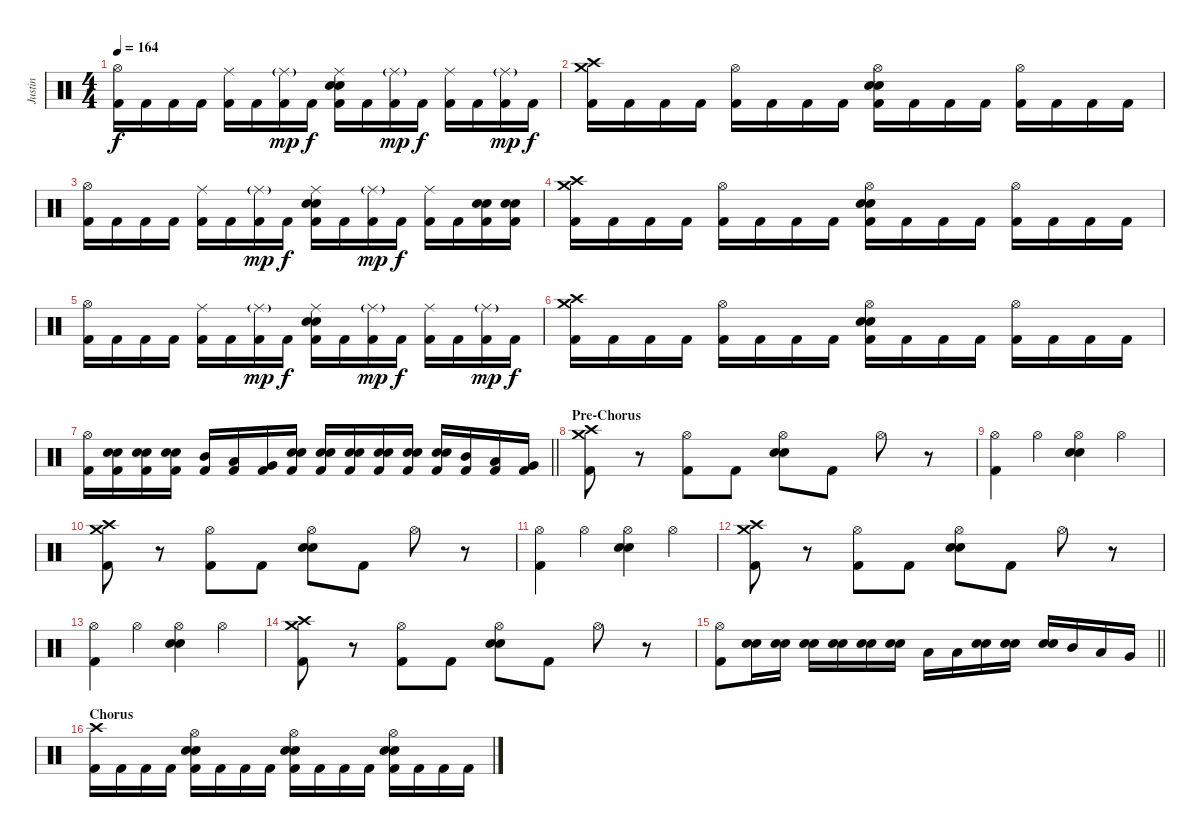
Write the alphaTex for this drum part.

\track ("Justin" "Justin") {instrument percussion}
\staff {score}
\articulation defaults
\ts (4 4)
\tempo 164
\clef neutral
\ks c
("Hi-Hat (open)" "Kick (hit) 2").16{dy f} "Kick (hit) 2".16 "Kick (hit) 2".16 "Kick (hit) 2".16 ("Ride (middle)" "Kick (hit) 2").16 "Kick (hit) 2".16 ("Ride (middle)"{g} "Kick (hit) 2").16{dy mp} "Kick (hit) 2".16{dy f} ("Ride (middle)" "Electric Snare (hit)" "Snare (hit) 2" "Kick (hit) 2").16 "Kick (hit) 2".16 ("Ride (middle)"{g} "Kick (hit) 2").16{dy mp} "Kick (hit) 2".16{dy f} ("Ride (middle)" "Kick (hit) 2").16 "Kick (hit) 2".16 ("Ride (middle)"{g} "Kick (hit) 2").16{dy mp} "Kick (hit) 2".16{dy f} |
("Crash medium (hit)" "Crash high (hit)" "Kick (hit) 2").16 "Kick (hit) 2".16 "Kick (hit) 2".16 "Kick (hit) 2".16 ("Hi-Hat (open)" "Kick (hit) 2").16 "Kick (hit) 2".16 "Kick (hit) 2".16 "Kick (hit) 2".16 ("Hi-Hat (open)" "Electric Snare (hit)" "Snare (hit) 2" "Kick (hit) 2").16 "Kick (hit) 2".16 "Kick (hit) 2".16 "Kick (hit) 2".16 ("Hi-Hat (open)" "Kick (hit) 2").16 "Kick (hit) 2".16 "Kick (hit) 2".16 "Kick (hit) 2".16 |
("Hi-Hat (open)" "Kick (hit) 2").16 "Kick (hit) 2".16 "Kick (hit) 2".16 "Kick (hit) 2".16 ("Ride (middle)" "Kick (hit) 2").16 "Kick (hit) 2".16 ("Ride (middle)"{g} "Kick (hit) 2").16{dy mp} "Kick (hit) 2".16{dy f} ("Ride (middle)" "Electric Snare (hit)" "Snare (hit) 2" "Kick (hit) 2").16 "Kick (hit) 2".16 ("Ride (middle)"{g} "Kick (hit) 2").16{dy mp} "Kick (hit) 2".16{dy f} ("Ride (middle)" "Kick (hit) 2").16 "Kick (hit) 2".16 ("Electric Snare (hit)" "Snare (hit) 2" "Kick (hit) 2").16 ("Electric Snare (hit)" "Snare (hit) 2" "Kick (hit) 2").16 |
("Crash medium (hit)" "Crash high (hit)" "Kick (hit) 2").16 "Kick (hit) 2".16 "Kick (hit) 2".16 "Kick (hit) 2".16 ("Hi-Hat (open)" "Kick (hit) 2").16 "Kick (hit) 2".16 "Kick (hit) 2".16 "Kick (hit) 2".16 ("Hi-Hat (open)" "Electric Snare (hit)" "Snare (hit) 2" "Kick (hit) 2").16 "Kick (hit) 2".16 "Kick (hit) 2".16 "Kick (hit) 2".16 ("Hi-Hat (open)" "Kick (hit) 2").16 "Kick (hit) 2".16 "Kick (hit) 2".16 "Kick (hit) 2".16 |
("Hi-Hat (open)" "Kick (hit) 2").16 "Kick (hit) 2".16 "Kick (hit) 2".16 "Kick (hit) 2".16 ("Ride (middle)" "Kick (hit) 2").16 "Kick (hit) 2".16 ("Ride (middle)"{g} "Kick (hit) 2").16{dy mp} "Kick (hit) 2".16{dy f} ("Ride (middle)" "Electric Snare (hit)" "Snare (hit) 2" "Kick (hit) 2").16 "Kick (hit) 2".16 ("Ride (middle)"{g} "Kick (hit) 2").16{dy mp} "Kick (hit) 2".16{dy f} ("Ride (middle)" "Kick (hit) 2").16 "Kick (hit) 2".16 ("Ride (middle)"{g} "Kick (hit) 2").16{dy mp} "Kick (hit) 2".16{dy f} |
("Crash medium (hit)" "Crash high (hit)" "Kick (hit) 2").16 "Kick (hit) 2".16 "Kick (hit) 2".16 "Kick (hit) 2".16 ("Hi-Hat (open)" "Kick (hit) 2").16 "Kick (hit) 2".16 "Kick (hit) 2".16 "Kick (hit) 2".16 ("Hi-Hat (open)" "Electric Snare (hit)" "Snare (hit) 2" "Kick (hit) 2").16 "Kick (hit) 2".16 "Kick (hit) 2".16 "Kick (hit) 2".16 ("Hi-Hat (open)" "Kick (hit) 2").16 "Kick (hit) 2".16 "Kick (hit) 2".16 "Kick (hit) 2".16 |
\barLineRight lightlight
("Hi-Hat (open)" "Kick (hit) 2").16 ("Electric Snare (hit)" "Snare (hit) 2" "Kick (hit) 2").16 ("Electric Snare (hit)" "Snare (hit) 2" "Kick (hit) 2").16 ("Electric Snare (hit)" "Snare (hit) 2" "Kick (hit) 2").16 ("Mid Tom (hit)" "Kick (hit) 2").16 ("Low Tom (hit)" "Kick (hit) 2").16 ("Very Low Tom (hit)" "Kick (hit) 2").16 ("Electric Snare (hit)" "Snare (hit) 2" "Kick (hit) 2").16 ("Electric Snare (hit)" "Snare (hit) 2" "Kick (hit) 2").16 ("Electric Snare (hit)" "Snare (hit) 2" "Kick (hit) 2").16 ("Electric Snare (hit)" "Snare (hit) 2" "Kick (hit) 2").16 ("Electric Snare (hit)" "Snare (hit) 2" "Kick (hit) 2").16 ("Electric Snare (hit)" "Snare (hit) 2" "Kick (hit) 2").16 ("Mid Tom (hit)" "Kick (hit) 2").16 ("Low Tom (hit)" "Kick (hit) 2").16 ("Very Low Tom (hit)" "Kick (hit) 2").16 |
\section ("" "Pre-Chorus")
("Crash medium (hit)" "Crash high (hit)" "Kick (hit) 2").8 r.8 ("Hi-Hat (open)" "Kick (hit) 2").8 "Kick (hit) 2".8 ("Hi-Hat (open)" "Electric Snare (hit)" "Snare (hit) 2").8 "Kick (hit) 2".8 "Hi-Hat (open)".8 r.8 |
("Hi-Hat (open)" "Kick (hit) 2").4 "Hi-Hat (open)".4 ("Hi-Hat (open)" "Electric Snare (hit)" "Snare (hit) 2").4 "Hi-Hat (open)".4 |
("Crash medium (hit)" "Crash high (hit)" "Kick (hit) 2").8 r.8 ("Hi-Hat (open)" "Kick (hit) 2").8 "Kick (hit) 2".8 ("Hi-Hat (open)" "Electric Snare (hit)" "Snare (hit) 2").8 "Kick (hit) 2".8 "Hi-Hat (open)".8 r.8 |
("Hi-Hat (open)" "Kick (hit) 2").4 "Hi-Hat (open)".4 ("Hi-Hat (open)" "Electric Snare (hit)" "Snare (hit) 2").4 "Hi-Hat (open)".4 |
("Crash medium (hit)" "Crash high (hit)" "Kick (hit) 2").8 r.8 ("Hi-Hat (open)" "Kick (hit) 2").8 "Kick (hit) 2".8 ("Hi-Hat (open)" "Electric Snare (hit)" "Snare (hit) 2").8 "Kick (hit) 2".8 "Hi-Hat (open)".8 r.8 |
("Hi-Hat (open)" "Kick (hit) 2").4 "Hi-Hat (open)".4 ("Hi-Hat (open)" "Electric Snare (hit)" "Snare (hit) 2").4 "Hi-Hat (open)".4 |
("Crash medium (hit)" "Crash high (hit)" "Kick (hit) 2").8 r.8 ("Hi-Hat (open)" "Kick (hit) 2").8 "Kick (hit) 2".8 ("Hi-Hat (open)" "Electric Snare (hit)" "Snare (hit) 2").8 "Kick (hit) 2".8 "Hi-Hat (open)".8 r.8 |
\barLineRight lightlight
("Hi-Hat (open)" "Kick (hit) 2").8 ("Electric Snare (hit)" "Snare (hit) 2").16 ("Electric Snare (hit)" "Snare (hit) 2").16 ("Electric Snare (hit)" "Snare (hit) 2").16 ("Electric Snare (hit)" "Snare (hit) 2").16 ("Electric Snare (hit)" "Snare (hit) 2").16 ("Electric Snare (hit)" "Snare (hit) 2").16 "Low Tom (hit)".16 "Low Tom (hit)".16 ("Electric Snare (hit)" "Snare (hit) 2").16 ("Electric Snare (hit)" "Snare (hit) 2").16 ("Electric Snare (hit)" "Snare (hit) 2").16 "Mid Tom (hit)".16 "Low Tom (hit)".16 "Very Low Tom (hit)".16 |
\section ("" "Chorus")
("Crash high (hit)" "Kick (hit) 2").16 "Kick (hit) 2".16 "Kick (hit) 2".16 "Kick (hit) 2".16 ("Hi-Hat (open)" "Electric Snare (hit)" "Snare (hit) 2" "Kick (hit) 2").16 "Kick (hit) 2".16 "Kick (hit) 2".16 "Kick (hit) 2".16 ("Hi-Hat (open)" "Electric Snare (hit)" "Snare (hit) 2" "Kick (hit) 2").16 "Kick (hit) 2".16 "Kick (hit) 2".16 "Kick (hit) 2".16 ("Hi-Hat (open)" "Electric Snare (hit)" "Snare (hit) 2" "Kick (hit) 2").16 "Kick (hit) 2".16 "Kick (hit) 2".16 "Kick (hit) 2".16
